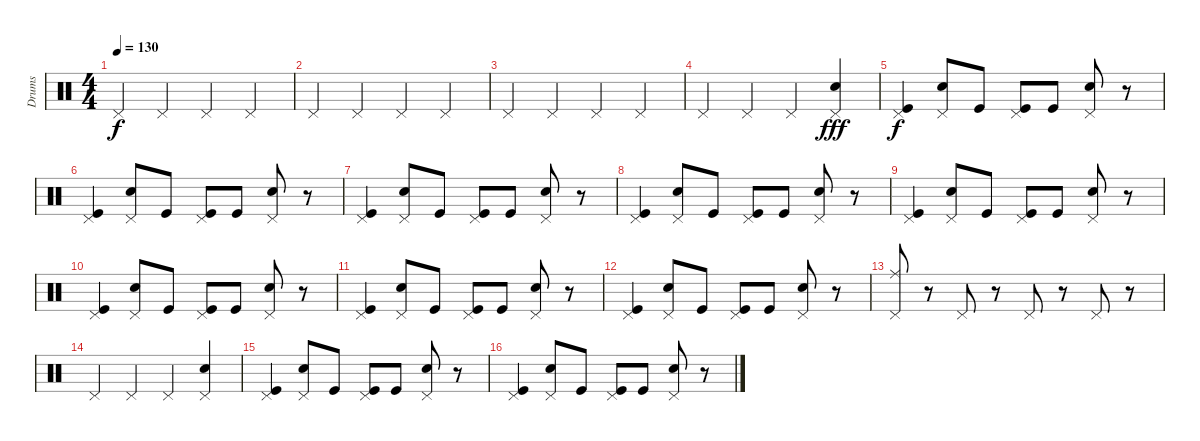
\track ("Drums" "Drums") {instrument percussion}
\staff {score}
\articulation defaults
\ts (4 4)
\tempo 130
\clef neutral
\ks c "Pedal Hi-Hat (hit)".4{dy f} "Pedal Hi-Hat (hit)".4 "Pedal Hi-Hat (hit)".4 "Pedal Hi-Hat (hit)".4
|
"Pedal Hi-Hat (hit)".4 "Pedal Hi-Hat (hit)".4 "Pedal Hi-Hat (hit)".4 "Pedal Hi-Hat (hit)".4 |
"Pedal Hi-Hat (hit)".4 "Pedal Hi-Hat (hit)".4 "Pedal Hi-Hat (hit)".4 "Pedal Hi-Hat (hit)".4 |
"Pedal Hi-Hat (hit)".4 "Pedal Hi-Hat (hit)".4 "Pedal Hi-Hat (hit)".4 ("Electric Snare (hit)" "Pedal Hi-Hat (hit)").4{dy fff} |
("Pedal Hi-Hat (hit)" "Kick (hit)").4{dy f} ("Pedal Hi-Hat (hit)" "Electric Snare (hit)").8 "Kick (hit)".8 ("Pedal Hi-Hat (hit)" "Kick (hit)").8 "Kick (hit)".8 ("Pedal Hi-Hat (hit)" "Electric Snare (hit)").8 r.8 |
("Pedal Hi-Hat (hit)" "Kick (hit)").4 ("Pedal Hi-Hat (hit)" "Electric Snare (hit)").8 "Kick (hit)".8 ("Pedal Hi-Hat (hit)" "Kick (hit)").8 "Kick (hit)".8 ("Pedal Hi-Hat (hit)" "Electric Snare (hit)").8 r.8 |
("Pedal Hi-Hat (hit)" "Kick (hit)").4 ("Pedal Hi-Hat (hit)" "Electric Snare (hit)").8 "Kick (hit)".8 ("Pedal Hi-Hat (hit)" "Kick (hit)").8 "Kick (hit)".8 ("Pedal Hi-Hat (hit)" "Electric Snare (hit)").8 r.8 |
("Pedal Hi-Hat (hit)" "Kick (hit)").4 ("Pedal Hi-Hat (hit)" "Electric Snare (hit)").8 "Kick (hit)".8 ("Pedal Hi-Hat (hit)" "Kick (hit)").8 "Kick (hit)".8 ("Pedal Hi-Hat (hit)" "Electric Snare (hit)").8 r.8 |
("Pedal Hi-Hat (hit)" "Kick (hit)").4 ("Pedal Hi-Hat (hit)" "Electric Snare (hit)").8 "Kick (hit)".8 ("Pedal Hi-Hat (hit)" "Kick (hit)").8 "Kick (hit)".8 ("Pedal Hi-Hat (hit)" "Electric Snare (hit)").8 r.8 |
("Pedal Hi-Hat (hit)" "Kick (hit)").4 ("Pedal Hi-Hat (hit)" "Electric Snare (hit)").8 "Kick (hit)".8 ("Pedal Hi-Hat (hit)" "Kick (hit)").8 "Kick (hit)".8 ("Pedal Hi-Hat (hit)" "Electric Snare (hit)").8 r.8 |
("Pedal Hi-Hat (hit)" "Kick (hit)").4 ("Pedal Hi-Hat (hit)" "Electric Snare (hit)").8 "Kick (hit)".8 ("Pedal Hi-Hat (hit)" "Kick (hit)").8 "Kick (hit)".8 ("Pedal Hi-Hat (hit)" "Electric Snare (hit)").8 r.8 |
("Pedal Hi-Hat (hit)" "Kick (hit)").4 ("Pedal Hi-Hat (hit)" "Electric Snare (hit)").8 "Kick (hit)".8 ("Pedal Hi-Hat (hit)" "Kick (hit)").8 "Kick (hit)".8 ("Pedal Hi-Hat (hit)" "Electric Snare (hit)").8 r.8 |
("Pedal Hi-Hat (hit)" "Ride (middle)").8 r.8 "Pedal Hi-Hat (hit)".8 r.8 "Pedal Hi-Hat (hit)".8 r.8 "Pedal Hi-Hat (hit)".8 r.8 |
"Pedal Hi-Hat (hit)".4 "Pedal Hi-Hat (hit)".4 "Pedal Hi-Hat (hit)".4 ("Electric Snare (hit)" "Pedal Hi-Hat (hit)").4 |
("Pedal Hi-Hat (hit)" "Kick (hit)").4 ("Pedal Hi-Hat (hit)" "Electric Snare (hit)").8 "Kick (hit)".8 ("Pedal Hi-Hat (hit)" "Kick (hit)").8 "Kick (hit)".8 ("Pedal Hi-Hat (hit)" "Electric Snare (hit)").8 r.8 |
("Pedal Hi-Hat (hit)" "Kick (hit)").4 ("Pedal Hi-Hat (hit)" "Electric Snare (hit)").8 "Kick (hit)".8 ("Pedal Hi-Hat (hit)" "Kick (hit)").8 "Kick (hit)".8 ("Pedal Hi-Hat (hit)" "Electric Snare (hit)").8 r.8
